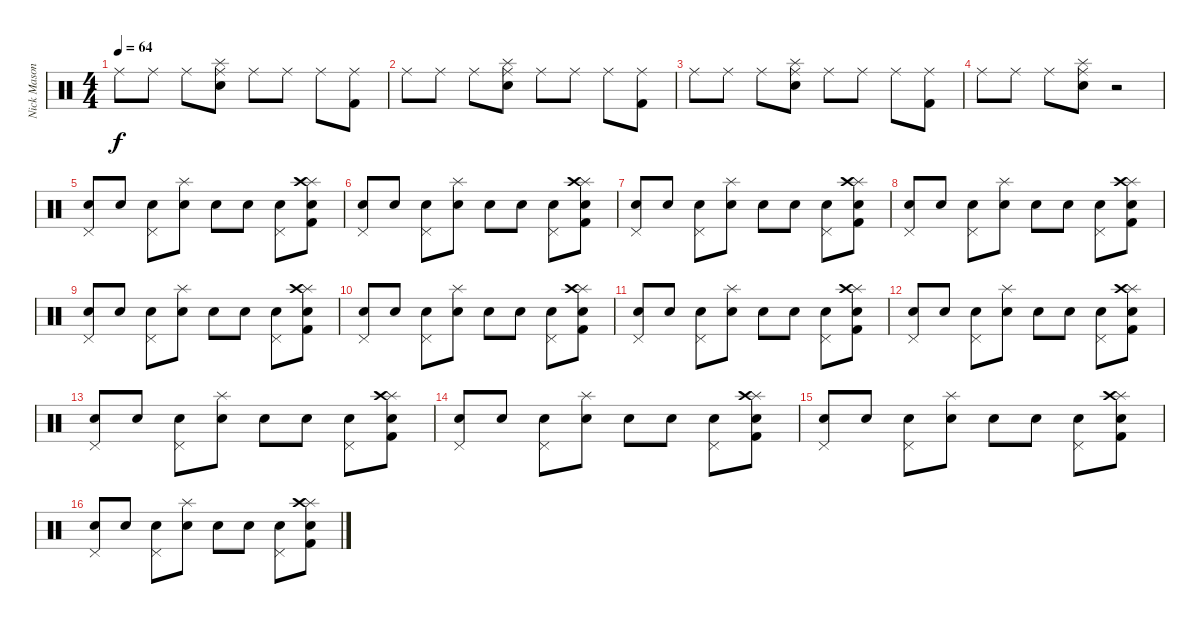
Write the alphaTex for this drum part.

\track ("Nick Mason" "Nick Mason") {instrument percussion}
\staff {score}
\articulation defaults
\ts (4 4)
\tempo 64
\clef neutral
\ks c "Ride (middle)".8{dy f} "Ride (middle)".8 "Ride (middle)".8
("Ride (middle)" "Splash (hit)" "Electric Snare (hit)").8 "Ride (middle)".8 "Ride (middle)".8 "Ride (middle)".8 ("Ride (middle)" "Kick (hit) 2").8 |
"Ride (middle)".8 "Ride (middle)".8 "Ride (middle)".8 ("Ride (middle)" "Splash (hit)" "Electric Snare (hit)").8 "Ride (middle)".8 "Ride (middle)".8 "Ride (middle)".8 ("Ride (middle)" "Kick (hit) 2").8 |
"Ride (middle)".8 "Ride (middle)".8 "Ride (middle)".8 ("Ride (middle)" "Splash (hit)" "Electric Snare (hit)").8 "Ride (middle)".8 "Ride (middle)".8 "Ride (middle)".8 ("Ride (middle)" "Kick (hit) 2").8 |
"Ride (middle)".8 "Ride (middle)".8 "Ride (middle)".8 ("Ride (middle)" "Splash (hit)" "Electric Snare (hit)").8 r.2 |
("Pedal Hi-Hat (hit)" "Snare (hit) 2").8 "Electric Snare (hit)".8 ("Pedal Hi-Hat (hit)" "Snare (hit) 2").8 ("Splash (hit)" "Electric Snare (hit)").8 "Snare (hit) 2".8 "Electric Snare (hit)".8 ("Pedal Hi-Hat (hit)" "Snare (hit) 2").8 ("Splash (hit)" "Crash high (hit)" "Electric Snare (hit)" "Kick (hit) 2").8 |
("Pedal Hi-Hat (hit)" "Snare (hit) 2").8 "Electric Snare (hit)".8 ("Pedal Hi-Hat (hit)" "Snare (hit) 2").8 ("Splash (hit)" "Electric Snare (hit)").8 "Snare (hit) 2".8 "Electric Snare (hit)".8 ("Pedal Hi-Hat (hit)" "Snare (hit) 2").8 ("Splash (hit)" "Crash high (hit)" "Electric Snare (hit)" "Kick (hit) 2").8 |
("Pedal Hi-Hat (hit)" "Snare (hit) 2").8 "Electric Snare (hit)".8 ("Pedal Hi-Hat (hit)" "Snare (hit) 2").8 ("Splash (hit)" "Electric Snare (hit)").8 "Snare (hit) 2".8 "Electric Snare (hit)".8 ("Pedal Hi-Hat (hit)" "Snare (hit) 2").8 ("Splash (hit)" "Crash high (hit)" "Electric Snare (hit)" "Kick (hit) 2").8 |
("Pedal Hi-Hat (hit)" "Snare (hit) 2").8 "Electric Snare (hit)".8 ("Pedal Hi-Hat (hit)" "Snare (hit) 2").8 ("Splash (hit)" "Electric Snare (hit)").8 "Snare (hit) 2".8 "Electric Snare (hit)".8 ("Pedal Hi-Hat (hit)" "Snare (hit) 2").8 ("Splash (hit)" "Crash high (hit)" "Electric Snare (hit)" "Kick (hit) 2").8 |
("Pedal Hi-Hat (hit)" "Snare (hit) 2").8 "Electric Snare (hit)".8 ("Pedal Hi-Hat (hit)" "Snare (hit) 2").8 ("Splash (hit)" "Electric Snare (hit)").8 "Snare (hit) 2".8 "Electric Snare (hit)".8 ("Pedal Hi-Hat (hit)" "Snare (hit) 2").8 ("Splash (hit)" "Crash high (hit)" "Electric Snare (hit)" "Kick (hit) 2").8 |
("Pedal Hi-Hat (hit)" "Snare (hit) 2").8 "Electric Snare (hit)".8 ("Pedal Hi-Hat (hit)" "Snare (hit) 2").8 ("Splash (hit)" "Electric Snare (hit)").8 "Snare (hit) 2".8 "Electric Snare (hit)".8 ("Pedal Hi-Hat (hit)" "Snare (hit) 2").8 ("Splash (hit)" "Crash high (hit)" "Electric Snare (hit)" "Kick (hit) 2").8 |
("Pedal Hi-Hat (hit)" "Snare (hit) 2").8 "Electric Snare (hit)".8 ("Pedal Hi-Hat (hit)" "Snare (hit) 2").8 ("Splash (hit)" "Electric Snare (hit)").8 "Snare (hit) 2".8 "Electric Snare (hit)".8 ("Pedal Hi-Hat (hit)" "Snare (hit) 2").8 ("Splash (hit)" "Crash high (hit)" "Electric Snare (hit)" "Kick (hit) 2").8 |
("Pedal Hi-Hat (hit)" "Snare (hit) 2").8 "Electric Snare (hit)".8 ("Pedal Hi-Hat (hit)" "Snare (hit) 2").8 ("Splash (hit)" "Electric Snare (hit)").8 "Snare (hit) 2".8 "Electric Snare (hit)".8 ("Pedal Hi-Hat (hit)" "Snare (hit) 2").8 ("Splash (hit)" "Crash high (hit)" "Electric Snare (hit)" "Kick (hit) 2").8 |
("Pedal Hi-Hat (hit)" "Snare (hit) 2").8 "Electric Snare (hit)".8 ("Pedal Hi-Hat (hit)" "Snare (hit) 2").8 ("Splash (hit)" "Electric Snare (hit)").8 "Snare (hit) 2".8 "Electric Snare (hit)".8 ("Pedal Hi-Hat (hit)" "Snare (hit) 2").8 ("Splash (hit)" "Crash high (hit)" "Electric Snare (hit)" "Kick (hit) 2").8 |
("Pedal Hi-Hat (hit)" "Snare (hit) 2").8 "Electric Snare (hit)".8 ("Pedal Hi-Hat (hit)" "Snare (hit) 2").8 ("Splash (hit)" "Electric Snare (hit)").8 "Snare (hit) 2".8 "Electric Snare (hit)".8 ("Pedal Hi-Hat (hit)" "Snare (hit) 2").8 ("Splash (hit)" "Crash high (hit)" "Electric Snare (hit)" "Kick (hit) 2").8 |
("Pedal Hi-Hat (hit)" "Snare (hit) 2").8 "Electric Snare (hit)".8 ("Pedal Hi-Hat (hit)" "Snare (hit) 2").8 ("Splash (hit)" "Electric Snare (hit)").8 "Snare (hit) 2".8 "Electric Snare (hit)".8 ("Pedal Hi-Hat (hit)" "Snare (hit) 2").8 ("Splash (hit)" "Crash high (hit)" "Electric Snare (hit)" "Kick (hit) 2").8 |
("Pedal Hi-Hat (hit)" "Snare (hit) 2").8 "Electric Snare (hit)".8 ("Pedal Hi-Hat (hit)" "Snare (hit) 2").8 ("Splash (hit)" "Electric Snare (hit)").8 "Snare (hit) 2".8 "Electric Snare (hit)".8 ("Pedal Hi-Hat (hit)" "Snare (hit) 2").8 ("Splash (hit)" "Crash high (hit)" "Electric Snare (hit)" "Kick (hit) 2").8
